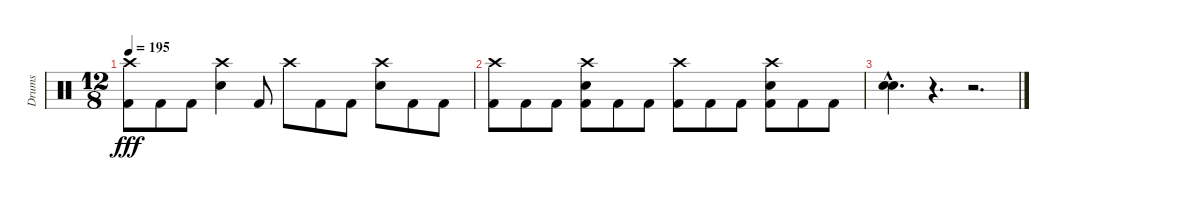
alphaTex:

\track ("Drums" "Drums") {instrument percussion}
\staff {score}
\articulation defaults
\ts (12 8)
\tempo 195
\clef neutral
\ks c
("Crash high (hit)" "Kick (hit) 2").8{dy fff} "Kick (hit) 2".8 "Kick (hit) 2".8 ("Crash high (hit)" "Electric Snare (hit)").4 "Kick (hit) 2".8 "Crash high (hit)".8 "Kick (hit) 2".8 "Kick (hit) 2".8 ("Crash high (hit)" "Electric Snare (hit)").8 "Kick (hit) 2".8 "Kick (hit) 2".8 |
("Crash high (hit)" "Kick (hit) 2").8 "Kick (hit) 2".8 "Kick (hit) 2".8 ("Crash high (hit)" "Electric Snare (hit)" "Kick (hit) 2").8 "Kick (hit) 2".8 "Kick (hit) 2".8 ("Crash high (hit)" "Kick (hit) 2").8 "Kick (hit) 2".8 "Kick (hit) 2".8 ("Crash high (hit)" "Electric Snare (hit)" "Kick (hit) 2").8 "Kick (hit) 2".8 "Kick (hit) 2".8 |
("Electric Snare (hit)"{hac} "Electric Snare (hit)"{hac}).4{d} r.4{d} r.2{d}
